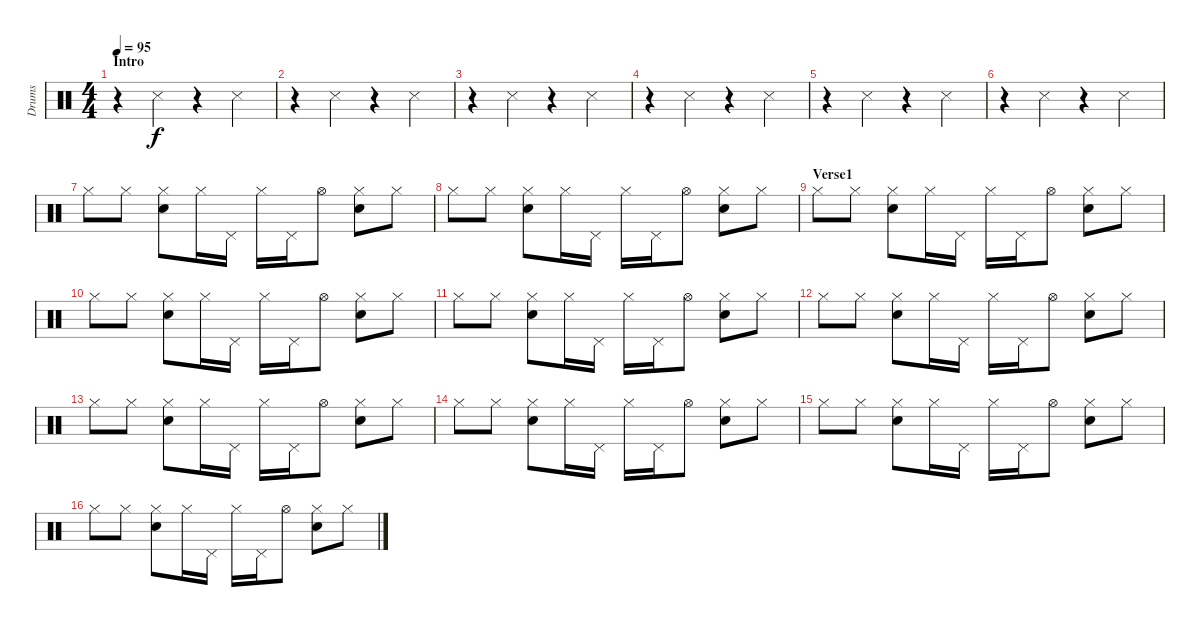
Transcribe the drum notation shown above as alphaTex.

\track ("Drums" "Drums") {instrument percussion}
\staff {score}
\articulation defaults
\ts (4 4)
\section ("" "Intro")
\tempo 95
\clef neutral
\ks c
r.4{dy f} "Snare (side stick) 3".4 r.4 "Snare (side stick) 3".4 |
r.4 "Snare (side stick) 3".4 r.4 "Snare (side stick) 3".4 |
r.4 "Snare (side stick) 3".4 r.4 "Snare (side stick) 3".4 |
r.4 "Snare (side stick) 3".4 r.4 "Snare (side stick) 3".4 |
r.4 "Snare (side stick) 3".4 r.4 "Snare (side stick) 3".4 |
r.4 "Snare (side stick) 3".4 r.4 "Snare (side stick) 3".4 |
"Hi-Hat (closed)".8 "Hi-Hat (closed)".8 ("Hi-Hat (closed)" "Snare (hit) 2").8 "Hi-Hat (closed)".16 "Pedal Hi-Hat (hit)".16 "Hi-Hat (closed)".16 "Pedal Hi-Hat (hit)".16 "Hi-Hat (open)".8 ("Hi-Hat (closed)" "Snare (hit) 2").8 "Hi-Hat (closed)".8 |
"Hi-Hat (closed)".8 "Hi-Hat (closed)".8 ("Hi-Hat (closed)" "Snare (hit) 2").8 "Hi-Hat (closed)".16 "Pedal Hi-Hat (hit)".16 "Hi-Hat (closed)".16 "Pedal Hi-Hat (hit)".16 "Hi-Hat (open)".8 ("Hi-Hat (closed)" "Snare (hit) 2").8 "Hi-Hat (closed)".8 |
\section ("" "Verse1")
"Hi-Hat (closed)".8 "Hi-Hat (closed)".8 ("Hi-Hat (closed)" "Snare (hit) 2").8 "Hi-Hat (closed)".16 "Pedal Hi-Hat (hit)".16 "Hi-Hat (closed)".16 "Pedal Hi-Hat (hit)".16 "Hi-Hat (open)".8 ("Hi-Hat (closed)" "Snare (hit) 2").8 "Hi-Hat (closed)".8 |
"Hi-Hat (closed)".8 "Hi-Hat (closed)".8 ("Hi-Hat (closed)" "Snare (hit) 2").8 "Hi-Hat (closed)".16 "Pedal Hi-Hat (hit)".16 "Hi-Hat (closed)".16 "Pedal Hi-Hat (hit)".16 "Hi-Hat (open)".8 ("Hi-Hat (closed)" "Snare (hit) 2").8 "Hi-Hat (closed)".8 |
"Hi-Hat (closed)".8 "Hi-Hat (closed)".8 ("Hi-Hat (closed)" "Snare (hit) 2").8 "Hi-Hat (closed)".16 "Pedal Hi-Hat (hit)".16 "Hi-Hat (closed)".16 "Pedal Hi-Hat (hit)".16 "Hi-Hat (open)".8 ("Hi-Hat (closed)" "Snare (hit) 2").8 "Hi-Hat (closed)".8 |
"Hi-Hat (closed)".8 "Hi-Hat (closed)".8 ("Hi-Hat (closed)" "Snare (hit) 2").8 "Hi-Hat (closed)".16 "Pedal Hi-Hat (hit)".16 "Hi-Hat (closed)".16 "Pedal Hi-Hat (hit)".16 "Hi-Hat (open)".8 ("Hi-Hat (closed)" "Snare (hit) 2").8 "Hi-Hat (closed)".8 |
"Hi-Hat (closed)".8 "Hi-Hat (closed)".8 ("Hi-Hat (closed)" "Snare (hit) 2").8 "Hi-Hat (closed)".16 "Pedal Hi-Hat (hit)".16 "Hi-Hat (closed)".16 "Pedal Hi-Hat (hit)".16 "Hi-Hat (open)".8 ("Hi-Hat (closed)" "Snare (hit) 2").8 "Hi-Hat (closed)".8 |
"Hi-Hat (closed)".8 "Hi-Hat (closed)".8 ("Hi-Hat (closed)" "Snare (hit) 2").8 "Hi-Hat (closed)".16 "Pedal Hi-Hat (hit)".16 "Hi-Hat (closed)".16 "Pedal Hi-Hat (hit)".16 "Hi-Hat (open)".8 ("Hi-Hat (closed)" "Snare (hit) 2").8 "Hi-Hat (closed)".8 |
"Hi-Hat (closed)".8 "Hi-Hat (closed)".8 ("Hi-Hat (closed)" "Snare (hit) 2").8 "Hi-Hat (closed)".16 "Pedal Hi-Hat (hit)".16 "Hi-Hat (closed)".16 "Pedal Hi-Hat (hit)".16 "Hi-Hat (open)".8 ("Hi-Hat (closed)" "Snare (hit) 2").8 "Hi-Hat (closed)".8 |
"Hi-Hat (closed)".8 "Hi-Hat (closed)".8 ("Hi-Hat (closed)" "Snare (hit) 2").8 "Hi-Hat (closed)".16 "Pedal Hi-Hat (hit)".16 "Hi-Hat (closed)".16 "Pedal Hi-Hat (hit)".16 "Hi-Hat (open)".8 ("Hi-Hat (closed)" "Snare (hit) 2").8 "Hi-Hat (closed)".8
